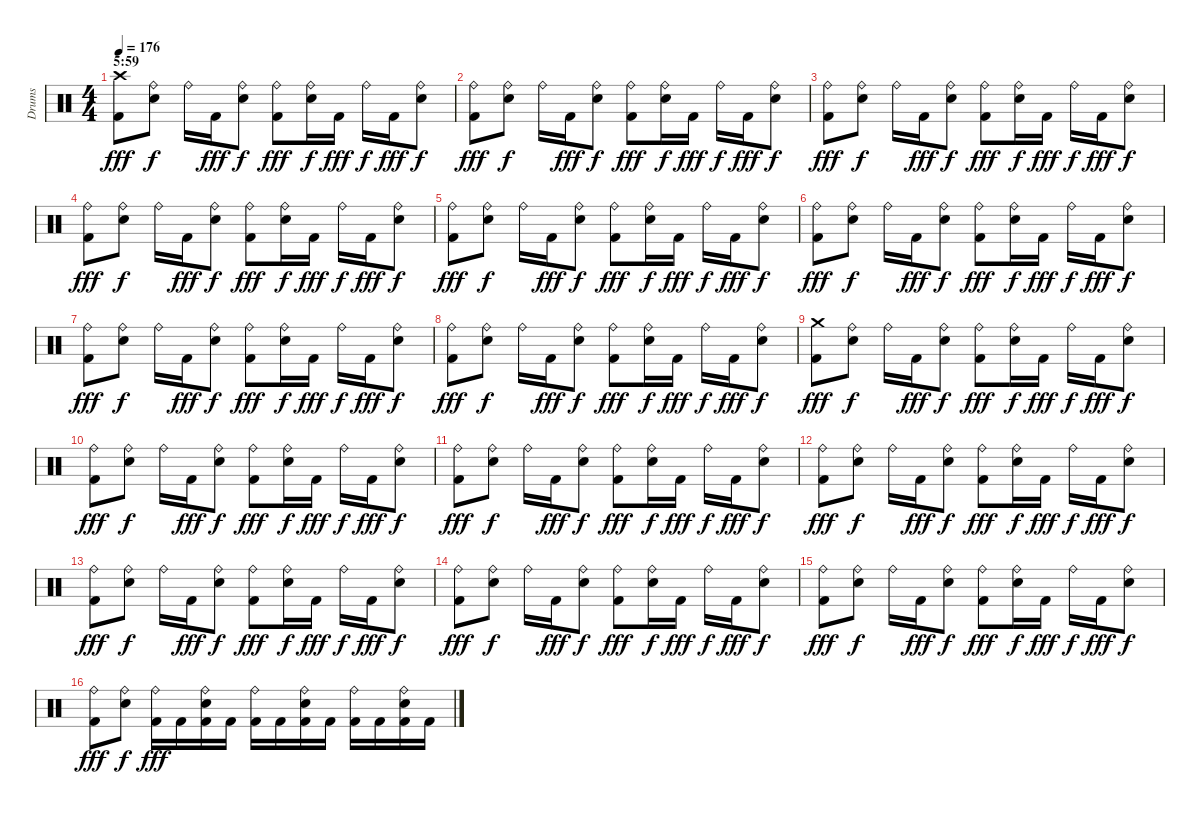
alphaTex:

\track ("Drums" "Drums") {instrument percussion}
\staff {score}
\articulation defaults
\ts (4 4)
\section ("" "5:59")
\tempo 176
\clef neutral
\ks c
("Crash high (hit)" "Kick (hit) 2").8{dy fff} ("Ride (bell)" "Snare (hit) 2").8{dy f} "Ride (bell)".16 "Kick (hit) 2".16{dy fff} ("Ride (bell)" "Snare (hit) 2").8{dy f} ("Ride (bell)" "Kick (hit) 2").8{dy fff} ("Ride (bell)" "Snare (hit) 2").16{dy f} "Kick (hit) 2".16{dy fff} "Ride (bell)".16{dy f} "Kick (hit) 2".16{dy fff} ("Ride (bell)" "Snare (hit) 2").8{dy f} |
("Ride (bell)" "Kick (hit) 2").8{dy fff} ("Ride (bell)" "Snare (hit) 2").8{dy f} "Ride (bell)".16 "Kick (hit) 2".16{dy fff} ("Ride (bell)" "Snare (hit) 2").8{dy f} ("Ride (bell)" "Kick (hit) 2").8{dy fff} ("Ride (bell)" "Snare (hit) 2").16{dy f} "Kick (hit) 2".16{dy fff} "Ride (bell)".16{dy f} "Kick (hit) 2".16{dy fff} ("Ride (bell)" "Snare (hit) 2").8{dy f} |
("Ride (bell)" "Kick (hit) 2").8{dy fff} ("Ride (bell)" "Snare (hit) 2").8{dy f} "Ride (bell)".16 "Kick (hit) 2".16{dy fff} ("Ride (bell)" "Snare (hit) 2").8{dy f} ("Ride (bell)" "Kick (hit) 2").8{dy fff} ("Ride (bell)" "Snare (hit) 2").16{dy f} "Kick (hit) 2".16{dy fff} "Ride (bell)".16{dy f} "Kick (hit) 2".16{dy fff} ("Ride (bell)" "Snare (hit) 2").8{dy f} |
("Ride (bell)" "Kick (hit) 2").8{dy fff} ("Ride (bell)" "Snare (hit) 2").8{dy f} "Ride (bell)".16 "Kick (hit) 2".16{dy fff} ("Ride (bell)" "Snare (hit) 2").8{dy f} ("Ride (bell)" "Kick (hit) 2").8{dy fff} ("Ride (bell)" "Snare (hit) 2").16{dy f} "Kick (hit) 2".16{dy fff} "Ride (bell)".16{dy f} "Kick (hit) 2".16{dy fff} ("Ride (bell)" "Snare (hit) 2").8{dy f} |
("Ride (bell)" "Kick (hit) 2").8{dy fff} ("Ride (bell)" "Snare (hit) 2").8{dy f} "Ride (bell)".16 "Kick (hit) 2".16{dy fff} ("Ride (bell)" "Snare (hit) 2").8{dy f} ("Ride (bell)" "Kick (hit) 2").8{dy fff} ("Ride (bell)" "Snare (hit) 2").16{dy f} "Kick (hit) 2".16{dy fff} "Ride (bell)".16{dy f} "Kick (hit) 2".16{dy fff} ("Ride (bell)" "Snare (hit) 2").8{dy f} |
("Ride (bell)" "Kick (hit) 2").8{dy fff} ("Ride (bell)" "Snare (hit) 2").8{dy f} "Ride (bell)".16 "Kick (hit) 2".16{dy fff} ("Ride (bell)" "Snare (hit) 2").8{dy f} ("Ride (bell)" "Kick (hit) 2").8{dy fff} ("Ride (bell)" "Snare (hit) 2").16{dy f} "Kick (hit) 2".16{dy fff} "Ride (bell)".16{dy f} "Kick (hit) 2".16{dy fff} ("Ride (bell)" "Snare (hit) 2").8{dy f} |
("Ride (bell)" "Kick (hit) 2").8{dy fff} ("Ride (bell)" "Snare (hit) 2").8{dy f} "Ride (bell)".16 "Kick (hit) 2".16{dy fff} ("Ride (bell)" "Snare (hit) 2").8{dy f} ("Ride (bell)" "Kick (hit) 2").8{dy fff} ("Ride (bell)" "Snare (hit) 2").16{dy f} "Kick (hit) 2".16{dy fff} "Ride (bell)".16{dy f} "Kick (hit) 2".16{dy fff} ("Ride (bell)" "Snare (hit) 2").8{dy f} |
("Ride (bell)" "Kick (hit) 2").8{dy fff} ("Ride (bell)" "Snare (hit) 2").8{dy f} "Ride (bell)".16 "Kick (hit) 2".16{dy fff} ("Ride (bell)" "Snare (hit) 2").8{dy f} ("Ride (bell)" "Kick (hit) 2").8{dy fff} ("Ride (bell)" "Snare (hit) 2").16{dy f} "Kick (hit) 2".16{dy fff} "Ride (bell)".16{dy f} "Kick (hit) 2".16{dy fff} ("Ride (bell)" "Snare (hit) 2").8{dy f} |
("Crash medium (hit)" "Kick (hit) 2").8{dy fff} ("Ride (bell)" "Snare (hit) 2").8{dy f} "Ride (bell)".16 "Kick (hit) 2".16{dy fff} ("Ride (bell)" "Snare (hit) 2").8{dy f} ("Ride (bell)" "Kick (hit) 2").8{dy fff} ("Ride (bell)" "Snare (hit) 2").16{dy f} "Kick (hit) 2".16{dy fff} "Ride (bell)".16{dy f} "Kick (hit) 2".16{dy fff} ("Ride (bell)" "Snare (hit) 2").8{dy f} |
("Ride (bell)" "Kick (hit) 2").8{dy fff} ("Ride (bell)" "Snare (hit) 2").8{dy f} "Ride (bell)".16 "Kick (hit) 2".16{dy fff} ("Ride (bell)" "Snare (hit) 2").8{dy f} ("Ride (bell)" "Kick (hit) 2").8{dy fff} ("Ride (bell)" "Snare (hit) 2").16{dy f} "Kick (hit) 2".16{dy fff} "Ride (bell)".16{dy f} "Kick (hit) 2".16{dy fff} ("Ride (bell)" "Snare (hit) 2").8{dy f} |
("Ride (bell)" "Kick (hit) 2").8{dy fff} ("Ride (bell)" "Snare (hit) 2").8{dy f} "Ride (bell)".16 "Kick (hit) 2".16{dy fff} ("Ride (bell)" "Snare (hit) 2").8{dy f} ("Ride (bell)" "Kick (hit) 2").8{dy fff} ("Ride (bell)" "Snare (hit) 2").16{dy f} "Kick (hit) 2".16{dy fff} "Ride (bell)".16{dy f} "Kick (hit) 2".16{dy fff} ("Ride (bell)" "Snare (hit) 2").8{dy f} |
("Ride (bell)" "Kick (hit) 2").8{dy fff} ("Ride (bell)" "Snare (hit) 2").8{dy f} "Ride (bell)".16 "Kick (hit) 2".16{dy fff} ("Ride (bell)" "Snare (hit) 2").8{dy f} ("Ride (bell)" "Kick (hit) 2").8{dy fff} ("Ride (bell)" "Snare (hit) 2").16{dy f} "Kick (hit) 2".16{dy fff} "Ride (bell)".16{dy f} "Kick (hit) 2".16{dy fff} ("Ride (bell)" "Snare (hit) 2").8{dy f} |
("Ride (bell)" "Kick (hit) 2").8{dy fff} ("Ride (bell)" "Snare (hit) 2").8{dy f} "Ride (bell)".16 "Kick (hit) 2".16{dy fff} ("Ride (bell)" "Snare (hit) 2").8{dy f} ("Ride (bell)" "Kick (hit) 2").8{dy fff} ("Ride (bell)" "Snare (hit) 2").16{dy f} "Kick (hit) 2".16{dy fff} "Ride (bell)".16{dy f} "Kick (hit) 2".16{dy fff} ("Ride (bell)" "Snare (hit) 2").8{dy f} |
("Ride (bell)" "Kick (hit) 2").8{dy fff} ("Ride (bell)" "Snare (hit) 2").8{dy f} "Ride (bell)".16 "Kick (hit) 2".16{dy fff} ("Ride (bell)" "Snare (hit) 2").8{dy f} ("Ride (bell)" "Kick (hit) 2").8{dy fff} ("Ride (bell)" "Snare (hit) 2").16{dy f} "Kick (hit) 2".16{dy fff} "Ride (bell)".16{dy f} "Kick (hit) 2".16{dy fff} ("Ride (bell)" "Snare (hit) 2").8{dy f} |
("Ride (bell)" "Kick (hit) 2").8{dy fff} ("Ride (bell)" "Snare (hit) 2").8{dy f} "Ride (bell)".16 "Kick (hit) 2".16{dy fff} ("Ride (bell)" "Snare (hit) 2").8{dy f} ("Ride (bell)" "Kick (hit) 2").8{dy fff} ("Ride (bell)" "Snare (hit) 2").16{dy f} "Kick (hit) 2".16{dy fff} "Ride (bell)".16{dy f} "Kick (hit) 2".16{dy fff} ("Ride (bell)" "Snare (hit) 2").8{dy f} |
("Ride (bell)" "Kick (hit) 2").8{dy fff} ("Ride (bell)" "Snare (hit) 2").8{dy f} ("Ride (bell)" "Kick (hit) 2").16{dy fff} "Kick (hit) 2".16 ("Ride (bell)" "Snare (hit) 2" "Kick (hit) 2").16 "Kick (hit) 2".16 ("Ride (bell)" "Kick (hit) 2").16 "Kick (hit) 2".16 ("Ride (bell)" "Snare (hit) 2" "Kick (hit) 2").16 "Kick (hit) 2".16 ("Ride (bell)" "Kick (hit) 2").16 "Kick (hit) 2".16 ("Ride (bell)" "Snare (hit) 2" "Kick (hit) 2").16 "Kick (hit) 2".16
